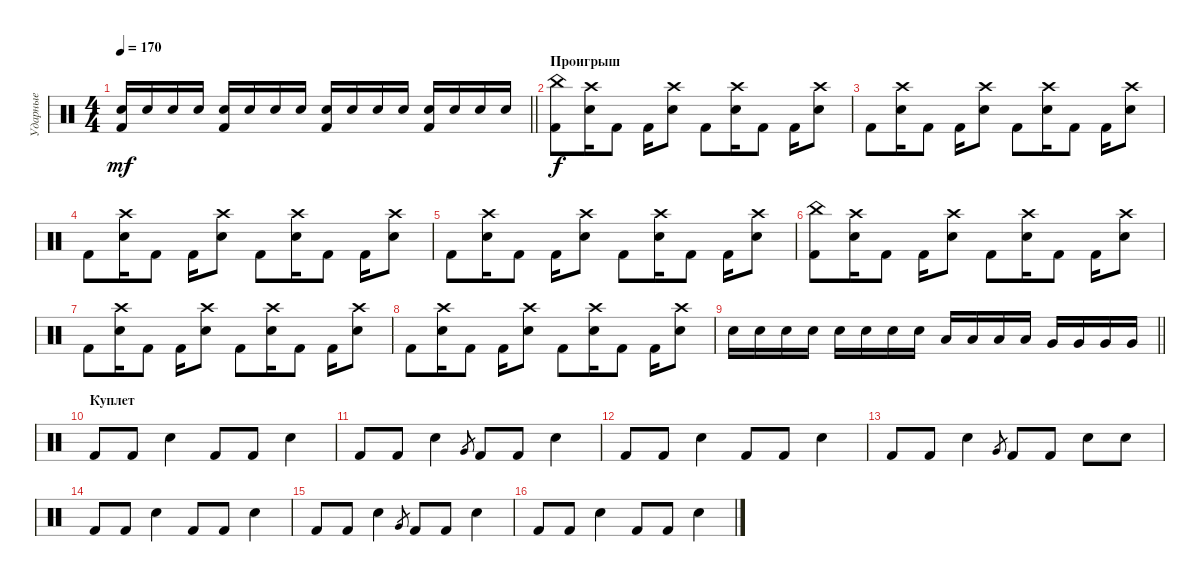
\track ("Ударные" "Ударные") {instrument percussion}
\staff {score}
\articulation defaults
\ts (4 4)
\tempo 170
\clef neutral
\barLineRight lightlight
\ks c
("Kick (hit) 2" "Electric Snare (hit)").16{dy mf} "Electric Snare (hit)".16 "Electric Snare (hit)".16 "Electric Snare (hit)".16 ("Kick (hit) 2" "Electric Snare (hit)").16 "Electric Snare (hit)".16 "Electric Snare (hit)".16 "Electric Snare (hit)".16 ("Kick (hit) 2" "Electric Snare (hit)").16 "Electric Snare (hit)".16 "Electric Snare (hit)".16 "Electric Snare (hit)".16 ("Kick (hit) 2" "Electric Snare (hit)").16 "Electric Snare (hit)".16 "Electric Snare (hit)".16 "Electric Snare (hit)".16 |
\section ("" "Проигрыш")
("Kick (hit) 2" "China (hit)").8{dy f} ("Electric Snare (hit)" "Crash high (hit)").16 "Kick (hit) 2".8 "Kick (hit) 2".16 ("Electric Snare (hit)" "Crash high (hit)").8 "Kick (hit) 2".8 ("Electric Snare (hit)" "Crash high (hit)").16 "Kick (hit) 2".8 "Kick (hit) 2".16 ("Electric Snare (hit)" "Crash high (hit)").8 |
"Kick (hit) 2".8 ("Electric Snare (hit)" "Crash high (hit)").16 "Kick (hit) 2".8 "Kick (hit) 2".16 ("Electric Snare (hit)" "Crash high (hit)").8 "Kick (hit) 2".8 ("Electric Snare (hit)" "Crash high (hit)").16 "Kick (hit) 2".8 "Kick (hit) 2".16 ("Electric Snare (hit)" "Crash high (hit)").8 |
"Kick (hit) 2".8 ("Electric Snare (hit)" "Crash high (hit)").16 "Kick (hit) 2".8 "Kick (hit) 2".16 ("Electric Snare (hit)" "Crash high (hit)").8 "Kick (hit) 2".8 ("Electric Snare (hit)" "Crash high (hit)").16 "Kick (hit) 2".8 "Kick (hit) 2".16 ("Electric Snare (hit)" "Crash high (hit)").8 |
"Kick (hit) 2".8 ("Electric Snare (hit)" "Crash high (hit)").16 "Kick (hit) 2".8 "Kick (hit) 2".16 ("Electric Snare (hit)" "Crash high (hit)").8 "Kick (hit) 2".8 ("Electric Snare (hit)" "Crash high (hit)").16 "Kick (hit) 2".8 "Kick (hit) 2".16 ("Electric Snare (hit)" "Crash high (hit)").8 |
("Kick (hit) 2" "China (hit)").8 ("Electric Snare (hit)" "Crash high (hit)").16 "Kick (hit) 2".8 "Kick (hit) 2".16 ("Electric Snare (hit)" "Crash high (hit)").8 "Kick (hit) 2".8 ("Electric Snare (hit)" "Crash high (hit)").16 "Kick (hit) 2".8 "Kick (hit) 2".16 ("Electric Snare (hit)" "Crash high (hit)").8 |
"Kick (hit) 2".8 ("Electric Snare (hit)" "Crash high (hit)").16 "Kick (hit) 2".8 "Kick (hit) 2".16 ("Electric Snare (hit)" "Crash high (hit)").8 "Kick (hit) 2".8 ("Electric Snare (hit)" "Crash high (hit)").16 "Kick (hit) 2".8 "Kick (hit) 2".16 ("Electric Snare (hit)" "Crash high (hit)").8 |
"Kick (hit) 2".8 ("Electric Snare (hit)" "Crash high (hit)").16 "Kick (hit) 2".8 "Kick (hit) 2".16 ("Electric Snare (hit)" "Crash high (hit)").8 "Kick (hit) 2".8 ("Electric Snare (hit)" "Crash high (hit)").16 "Kick (hit) 2".8 "Kick (hit) 2".16 ("Electric Snare (hit)" "Crash high (hit)").8 |
\barLineRight lightlight "Electric Snare (hit)".16 "Electric Snare (hit)".16 "Electric Snare (hit)".16 "Electric Snare (hit)".16 "Electric Snare (hit)".16 "Electric Snare (hit)".16 "Electric Snare (hit)".16 "Electric Snare (hit)".16 "Low Tom (hit)".16 "Low Tom (hit)".16 "Low Tom (hit)".16 "Low Tom (hit)".16 "Very Low Tom (hit)".16 "Very Low Tom (hit)".16 "Very Low Tom (hit)".16 "Very Low Tom (hit)".16
|
\section ("" "Куплет")
"Kick (hit) 2".8 "Kick (hit) 2".8 "Electric Snare (hit)".4 "Kick (hit) 2".8 "Kick (hit) 2".8 "Electric Snare (hit)".4 |
"Kick (hit) 2".8 "Kick (hit) 2".8 "Electric Snare (hit)".4 "Very Low Tom (hit)".8{gr} "Kick (hit) 2".8 "Kick (hit) 2".8 "Electric Snare (hit)".4 |
"Kick (hit) 2".8 "Kick (hit) 2".8 "Electric Snare (hit)".4 "Kick (hit) 2".8 "Kick (hit) 2".8 "Electric Snare (hit)".4 |
"Kick (hit) 2".8 "Kick (hit) 2".8 "Electric Snare (hit)".4 "Very Low Tom (hit)".8{gr} "Kick (hit) 2".8 "Kick (hit) 2".8 "Electric Snare (hit)".8 "Electric Snare (hit)".8 |
"Kick (hit) 2".8 "Kick (hit) 2".8 "Electric Snare (hit)".4 "Kick (hit) 2".8 "Kick (hit) 2".8 "Electric Snare (hit)".4 |
"Kick (hit) 2".8 "Kick (hit) 2".8 "Electric Snare (hit)".4 "Very Low Tom (hit)".8{gr} "Kick (hit) 2".8 "Kick (hit) 2".8 "Electric Snare (hit)".4 |
"Kick (hit) 2".8 "Kick (hit) 2".8 "Electric Snare (hit)".4 "Kick (hit) 2".8 "Kick (hit) 2".8 "Electric Snare (hit)".4
